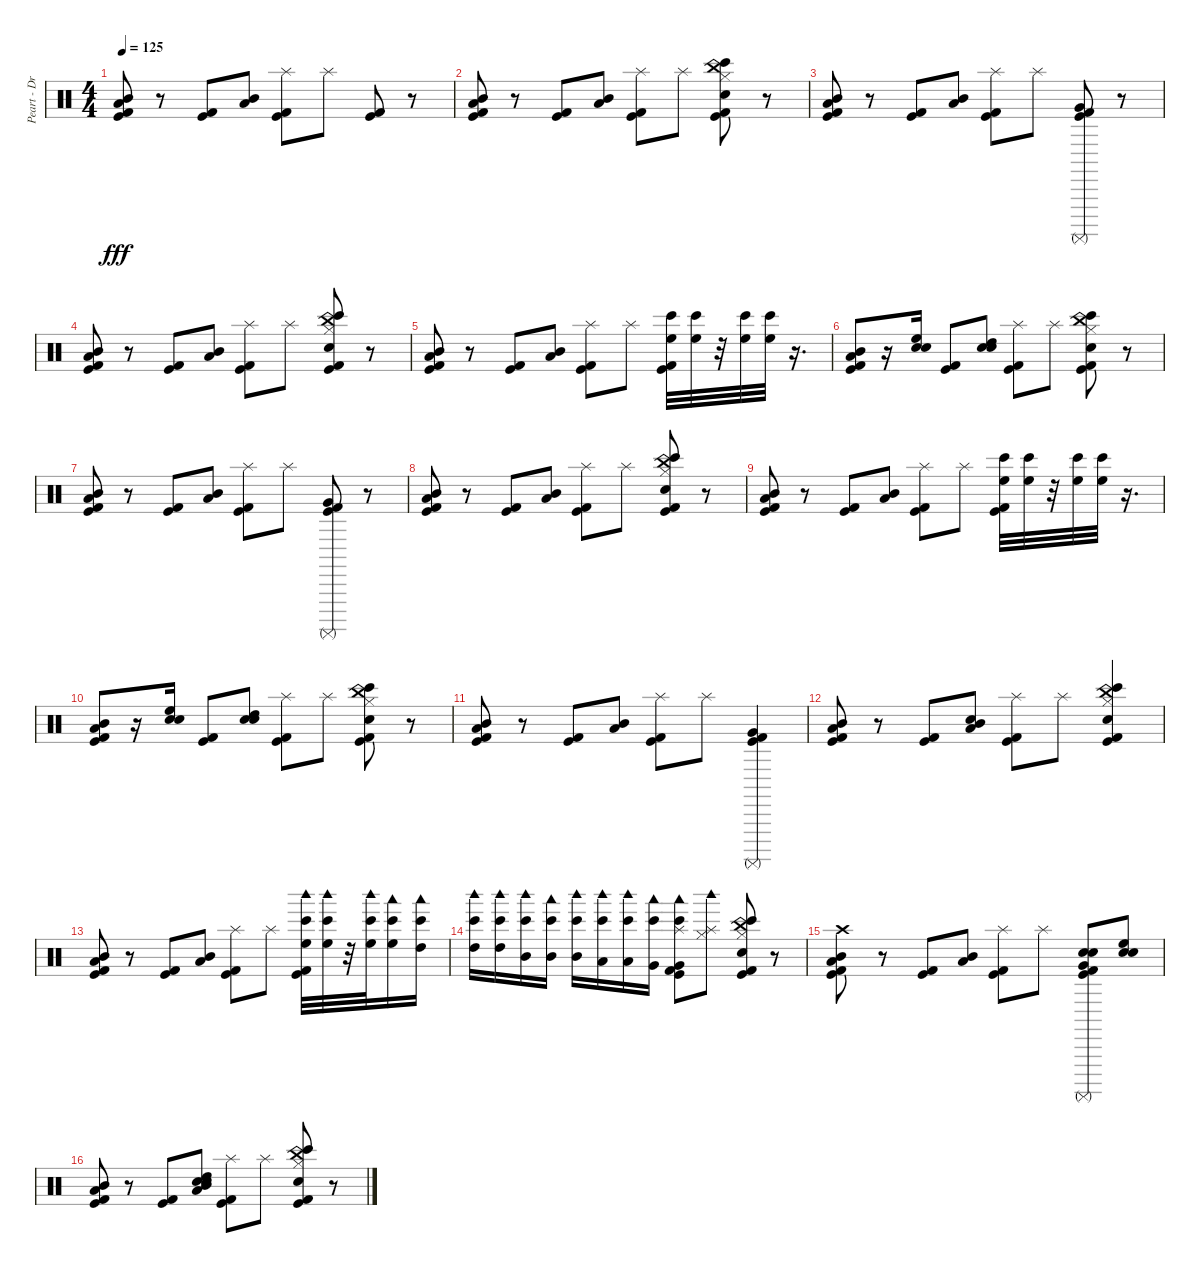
\track ("Peart - Drums" "Peart - Dr") {instrument percussion}
\staff {score}
\articulation defaults
\ts (4 4)
\tempo 125
\clef neutral
\ks c
("Kick (hit) 2" "Low Tom (hit)" "Kick (hit)" "Mid Tom (hit)").8{dy fff} r.8 ("Kick (hit) 2" "Kick (hit)").8 ("Low Tom (hit)" "Mid Tom (hit)").8 ("Kick (hit) 2" "Splash (hit)" "Kick (hit)").8 "Splash (hit)".8 ("Kick (hit) 2" "Kick (hit)").8 r.8 |
("Kick (hit) 2" "Low Tom (hit)" "Kick (hit)" "Mid Tom (hit)").8 r.8 ("Kick (hit) 2" "Kick (hit)").8 ("Low Tom (hit)" "Mid Tom (hit)").8 ("Kick (hit) 2" "Splash (hit)" "Kick (hit)").8 "Splash (hit)".8 ("Kick (hit) 2" "Kick (hit)" "Bongo High (hit)" "Hi-Hat (closed)" "Hand Clap (hit)" "China (hit)").8 r.8 |
("Kick (hit) 2" "Low Tom (hit)" "Kick (hit)" "Mid Tom (hit)").8 r.8 ("Kick (hit) 2" "Kick (hit)").8 ("Low Tom (hit)" "Mid Tom (hit)").8 ("Kick (hit) 2" "Splash (hit)" "Kick (hit)").8 "Splash (hit)".8 ("Kick (hit) 2" "Very Low Tom (hit)" "Kick (hit)" "Surdo (mute)").8 r.8 |
("Kick (hit) 2" "Low Tom (hit)" "Kick (hit)" "Mid Tom (hit)").8 r.8 ("Kick (hit) 2" "Kick (hit)").8 ("Low Tom (hit)" "Mid Tom (hit)").8 ("Kick (hit) 2" "Splash (hit)" "Kick (hit)").8 "Splash (hit)".8 ("Kick (hit) 2" "Bongo High (hit)" "Hi-Hat (closed)" "Kick (hit)" "China (hit)" "Electric Snare (hit)").8 r.8 |
("Kick (hit)" "Low Tom (hit)" "Kick (hit) 2" "Mid Tom (hit)").8 r.8 ("Kick (hit) 2" "Kick (hit)").8 ("Low Tom (hit)" "Mid Tom (hit)").8 ("Kick (hit) 2" "Splash (hit)" "Kick (hit)").8 "Splash (hit)".8 ("Kick (hit) 2" "Kick (hit)" "High Floor Tom (hit)" "Bongo High (hit)").32 ("Bongo High (hit)" "High Floor Tom (hit)").32 r.32 ("Bongo High (hit)" "High Floor Tom (hit)").32 ("Bongo High (hit)" "High Floor Tom (hit)").32 r.16{d} |
("Kick (hit) 2" "Low Tom (hit)" "Kick (hit)" "Mid Tom (hit)").8 r.16 ("Electric Snare (hit)" "Snare (hit) 2" "High Floor Tom (hit)").16 ("Kick (hit) 2" "Kick (hit)").8 ("Electric Snare (hit)" "Snare (hit) 2" "High Tom (hit)").8 ("Kick (hit) 2" "Splash (hit)" "Kick (hit)").8 "Splash (hit)".8 ("Kick (hit) 2" "Kick (hit)" "Bongo High (hit)" "Hi-Hat (closed)" "Hand Clap (hit)" "China (hit)").8 r.8 |
("Kick (hit)" "Low Tom (hit)" "Kick (hit) 2" "Mid Tom (hit)").8 r.8 ("Kick (hit) 2" "Kick (hit)").8 ("Low Tom (hit)" "Mid Tom (hit)").8 ("Kick (hit) 2" "Splash (hit)" "Kick (hit)").8 "Splash (hit)".8 ("Kick (hit) 2" "Very Low Tom (hit)" "Kick (hit)" "Surdo (mute)").8 r.8 |
("Kick (hit) 2" "Low Tom (hit)" "Kick (hit)" "Mid Tom (hit)").8 r.8 ("Kick (hit) 2" "Kick (hit)").8 ("Low Tom (hit)" "Mid Tom (hit)").8 ("Kick (hit) 2" "Splash (hit)" "Kick (hit)").8 "Splash (hit)".8 ("Kick (hit) 2" "Bongo High (hit)" "Hi-Hat (closed)" "Kick (hit)" "China (hit)" "Electric Snare (hit)").8 r.8 |
("Kick (hit) 2" "Low Tom (hit)" "Kick (hit)" "Mid Tom (hit)").8 r.8 ("Kick (hit) 2" "Kick (hit)").8 ("Low Tom (hit)" "Mid Tom (hit)").8 ("Kick (hit) 2" "Splash (hit)" "Kick (hit)").8 "Splash (hit)".8 ("Kick (hit) 2" "Kick (hit)" "High Floor Tom (hit)" "Bongo High (hit)").32 ("Bongo High (hit)" "High Floor Tom (hit)").32 r.32 ("Bongo High (hit)" "High Floor Tom (hit)").32 ("Bongo High (hit)" "High Floor Tom (hit)").32 r.16{d} |
("Kick (hit) 2" "Low Tom (hit)" "Kick (hit)" "Mid Tom (hit)").8 r.16 ("Electric Snare (hit)" "Snare (hit) 2" "High Floor Tom (hit)").16 ("Kick (hit) 2" "Kick (hit)").8 ("Electric Snare (hit)" "Snare (hit) 2" "High Tom (hit)").8 ("Kick (hit) 2" "Splash (hit)" "Kick (hit)").8 "Splash (hit)".8 ("Kick (hit) 2" "Kick (hit)" "Bongo High (hit)" "Hi-Hat (closed)" "Hand Clap (hit)" "China (hit)").8 r.8 |
("Kick (hit)" "Low Tom (hit)" "Kick (hit) 2" "Mid Tom (hit)").8 r.8 ("Kick (hit) 2" "Kick (hit)").8 ("Low Tom (hit)" "Mid Tom (hit)").8 ("Kick (hit) 2" "Splash (hit)" "Kick (hit)").8 "Splash (hit)".8 ("Kick (hit) 2" "Very Low Tom (hit)" "Kick (hit)" "Surdo (mute)").4 |
("Kick (hit) 2" "Low Tom (hit)" "Kick (hit)" "Mid Tom (hit)").8 r.8 ("Kick (hit) 2" "Kick (hit)").8 ("Low Tom (hit)" "Electric Snare (hit)" "Mid Tom (hit)").8 ("Kick (hit) 2" "Splash (hit)" "Kick (hit)").8 "Splash (hit)".8 ("Bongo High (hit)" "Hi-Hat (closed)" "Kick (hit)" "China (hit)" "Electric Snare (hit)" "Kick (hit) 2").4 |
("Kick (hit)" "Kick (hit) 2" "Low Tom (hit)" "Mid Tom (hit)").8 r.8 ("Kick (hit) 2" "Kick (hit)").8 ("Low Tom (hit)" "Mid Tom (hit)").8 ("Kick (hit) 2" "Kick (hit)" "Splash (hit)").8 "Splash (hit)".8 ("Kick (hit) 2" "Kick (hit)" "High Floor Tom (hit)" "Bongo High (hit)" "Woodblock high (hit)").32 ("High Floor Tom (hit)" "Bongo High (hit)" "Woodblock high (hit)").32 r.32 ("High Floor Tom (hit)" "Bongo High (hit)" "Woodblock high (hit)").32 ("Woodblock low (hit)" "Bongo High (hit)" "High Floor Tom (hit)").16 ("Woodblock low (hit)" "Bongo High (hit)" "High Tom (hit)").16 |
("High Tom (hit)" "Bongo High (hit)" "Woodblock high (hit)").16 ("High Tom (hit)" "Bongo High (hit)" "Woodblock high (hit)").16 ("Mid Tom (hit)" "Bongo High (hit)" "Woodblock high (hit)").16 ("Mid Tom (hit)" "Bongo High (hit)" "Woodblock low (hit)").16 ("Mid Tom (hit)" "Bongo High (hit)" "Woodblock high (hit)").16 ("Low Tom (hit)" "Bongo High (hit)" "Woodblock high (hit)").16 ("Low Tom (hit)" "Bongo High (hit)" "Woodblock high (hit)").16 ("Very Low Tom (hit)" "Bongo High (hit)" "Woodblock low (hit)").16 ("Very Low Tom (hit)" "Bongo High (hit)" "Woodblock low (hit)" "Kick (hit)" "Splash (hit)" "Kick (hit) 2").8 ("Splash (hit)" "Hi-Hat (closed)" "Woodblock high (hit)").8 ("Bongo High (hit)" "Hi-Hat (closed)" "Kick (hit)" "China (hit)" "Electric Snare (hit)" "Kick (hit) 2").8 r.8 |
("Kick (hit) 2" "Low Tom (hit)" "Kick (hit)" "Crash high (hit)" "Mid Tom (hit)").8 r.8 ("Kick (hit) 2" "Kick (hit)").8 ("Low Tom (hit)" "Mid Tom (hit)").8 ("Kick (hit) 2" "Splash (hit)" "Kick (hit)").8 "Splash (hit)".8 ("Kick (hit) 2" "Very Low Tom (hit)" "Kick (hit)" "Surdo (mute)" "Electric Snare (hit)" "Snare (hit) 2").8 ("Electric Snare (hit)" "Snare (hit) 2" "High Floor Tom (hit)").8 |
("Kick (hit) 2" "Low Tom (hit)" "Kick (hit)" "Mid Tom (hit)").8 r.8 ("Kick (hit) 2" "Kick (hit)").8 ("Low Tom (hit)" "Snare (hit) 2" "Electric Snare (hit)" "High Tom (hit)" "Mid Tom (hit)").8 ("Kick (hit) 2" "Splash (hit)" "Kick (hit)").8 "Splash (hit)".8 ("Bongo High (hit)" "Hi-Hat (closed)" "Kick (hit)" "China (hit)" "Electric Snare (hit)" "Kick (hit) 2").8 r.8
